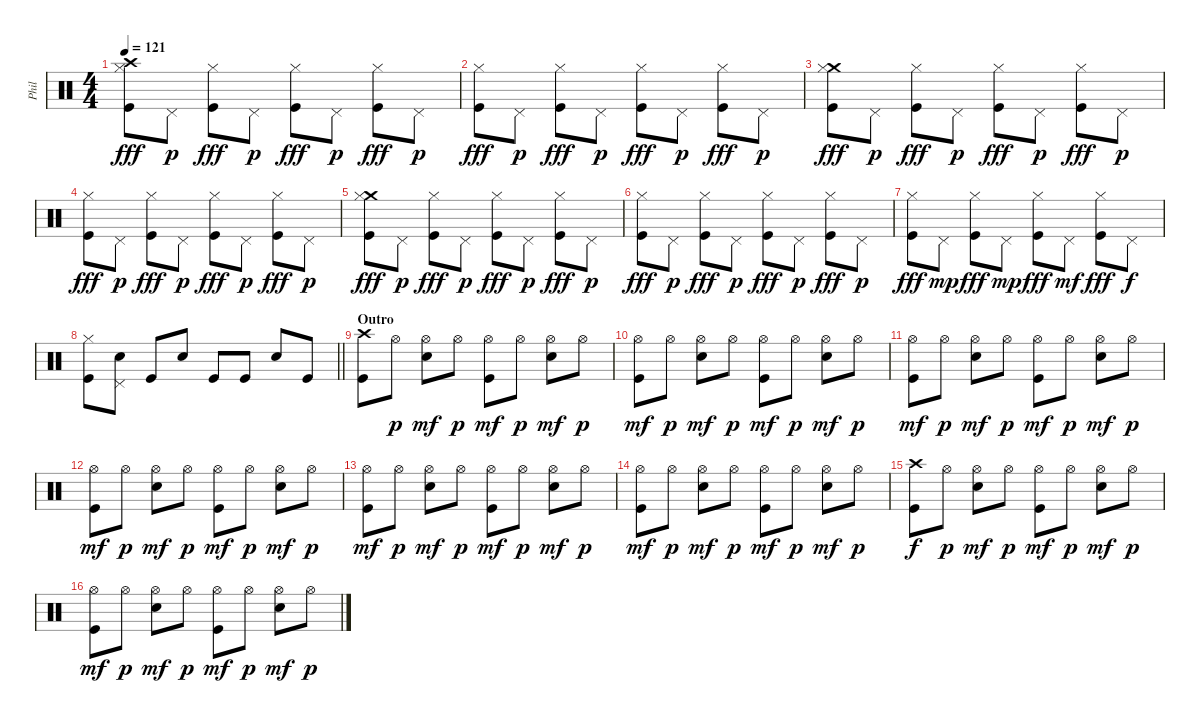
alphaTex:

\track ("Phil" "Phil") {instrument percussion}
\staff {score}
\articulation defaults
\ts (4 4)
\tempo 121
\clef neutral
\ks c
("Crash high (hit)" "Hi-Hat (closed)" "Kick (hit)").8{dy fff} "Pedal Hi-Hat (hit)".8{dy p} ("Hi-Hat (closed)" "Kick (hit)").8{dy fff} "Pedal Hi-Hat (hit)".8{dy p} ("Hi-Hat (closed)" "Kick (hit)").8{dy fff} "Pedal Hi-Hat (hit)".8{dy p} ("Hi-Hat (closed)" "Kick (hit)").8{dy fff} "Pedal Hi-Hat (hit)".8{dy p} |
("Hi-Hat (closed)" "Kick (hit)").8{dy fff} "Pedal Hi-Hat (hit)".8{dy p} ("Hi-Hat (closed)" "Kick (hit)").8{dy fff} "Pedal Hi-Hat (hit)".8{dy p} ("Hi-Hat (closed)" "Kick (hit)").8{dy fff} "Pedal Hi-Hat (hit)".8{dy p} ("Hi-Hat (closed)" "Kick (hit)").8{dy fff} "Pedal Hi-Hat (hit)".8{dy p} |
("Crash medium (hit)" "Hi-Hat (closed)" "Kick (hit)").8{dy fff} "Pedal Hi-Hat (hit)".8{dy p} ("Hi-Hat (closed)" "Kick (hit)").8{dy fff} "Pedal Hi-Hat (hit)".8{dy p} ("Hi-Hat (closed)" "Kick (hit)").8{dy fff} "Pedal Hi-Hat (hit)".8{dy p} ("Hi-Hat (closed)" "Kick (hit)").8{dy fff} "Pedal Hi-Hat (hit)".8{dy p} |
("Hi-Hat (closed)" "Kick (hit)").8{dy fff} "Pedal Hi-Hat (hit)".8{dy p} ("Hi-Hat (closed)" "Kick (hit)").8{dy fff} "Pedal Hi-Hat (hit)".8{dy p} ("Hi-Hat (closed)" "Kick (hit)").8{dy fff} "Pedal Hi-Hat (hit)".8{dy p} ("Hi-Hat (closed)" "Kick (hit)").8{dy fff} "Pedal Hi-Hat (hit)".8{dy p} |
("Crash medium (hit)" "Hi-Hat (closed)" "Kick (hit)").8{dy fff} "Pedal Hi-Hat (hit)".8{dy p} ("Hi-Hat (closed)" "Kick (hit)").8{dy fff} "Pedal Hi-Hat (hit)".8{dy p} ("Hi-Hat (closed)" "Kick (hit)").8{dy fff} "Pedal Hi-Hat (hit)".8{dy p} ("Hi-Hat (closed)" "Kick (hit)").8{dy fff} "Pedal Hi-Hat (hit)".8{dy p} |
("Hi-Hat (closed)" "Kick (hit)").8{dy fff} "Pedal Hi-Hat (hit)".8{dy p} ("Hi-Hat (closed)" "Kick (hit)").8{dy fff} "Pedal Hi-Hat (hit)".8{dy p} ("Hi-Hat (closed)" "Kick (hit)").8{dy fff} "Pedal Hi-Hat (hit)".8{dy p} ("Hi-Hat (closed)" "Kick (hit)").8{dy fff} "Pedal Hi-Hat (hit)".8{dy p} |
("Hi-Hat (closed)" "Kick (hit)").8{dy fff} "Pedal Hi-Hat (hit)".8{dy mp} ("Hi-Hat (closed)" "Kick (hit)").8{dy fff} "Pedal Hi-Hat (hit)".8{dy mp} ("Hi-Hat (closed)" "Kick (hit)").8{dy fff} "Pedal Hi-Hat (hit)".8{dy mf} ("Hi-Hat (closed)" "Kick (hit)").8{dy fff} "Pedal Hi-Hat (hit)".8{dy f} |
\barLineRight lightlight
("Hi-Hat (closed)" "Kick (hit)").8 ("Pedal Hi-Hat (hit)" "Snare (hit) 2").8 "Kick (hit)".8 "Snare (hit) 2".8 "Kick (hit)".8 "Kick (hit)".8 "Snare (hit) 2".8 "Kick (hit)".8 |
\section ("" "Outro")
("Crash high (hit)" "Kick (hit)").8 "Hi-Hat (open)".8{dy p} ("Hi-Hat (open)" "Snare (hit) 2").8{dy mf} "Hi-Hat (open)".8{dy p} ("Hi-Hat (open)" "Kick (hit)").8{dy mf} "Hi-Hat (open)".8{dy p} ("Hi-Hat (open)" "Snare (hit) 2").8{dy mf} "Hi-Hat (open)".8{dy p} |
("Hi-Hat (open)" "Kick (hit)").8{dy mf} "Hi-Hat (open)".8{dy p} ("Hi-Hat (open)" "Snare (hit) 2").8{dy mf} "Hi-Hat (open)".8{dy p} ("Hi-Hat (open)" "Kick (hit)").8{dy mf} "Hi-Hat (open)".8{dy p} ("Hi-Hat (open)" "Snare (hit) 2").8{dy mf} "Hi-Hat (open)".8{dy p} |
("Hi-Hat (open)" "Kick (hit)").8{dy mf} "Hi-Hat (open)".8{dy p} ("Hi-Hat (open)" "Snare (hit) 2").8{dy mf} "Hi-Hat (open)".8{dy p} ("Hi-Hat (open)" "Kick (hit)").8{dy mf} "Hi-Hat (open)".8{dy p} ("Hi-Hat (open)" "Snare (hit) 2").8{dy mf} "Hi-Hat (open)".8{dy p} |
("Hi-Hat (open)" "Kick (hit)").8{dy mf} "Hi-Hat (open)".8{dy p} ("Hi-Hat (open)" "Snare (hit) 2").8{dy mf} "Hi-Hat (open)".8{dy p} ("Hi-Hat (open)" "Kick (hit)").8{dy mf} "Hi-Hat (open)".8{dy p} ("Hi-Hat (open)" "Snare (hit) 2").8{dy mf} "Hi-Hat (open)".8{dy p} |
("Hi-Hat (open)" "Kick (hit)").8{dy mf} "Hi-Hat (open)".8{dy p} ("Hi-Hat (open)" "Snare (hit) 2").8{dy mf} "Hi-Hat (open)".8{dy p} ("Hi-Hat (open)" "Kick (hit)").8{dy mf} "Hi-Hat (open)".8{dy p} ("Hi-Hat (open)" "Snare (hit) 2").8{dy mf} "Hi-Hat (open)".8{dy p} |
("Hi-Hat (open)" "Kick (hit)").8{dy mf} "Hi-Hat (open)".8{dy p} ("Hi-Hat (open)" "Snare (hit) 2").8{dy mf} "Hi-Hat (open)".8{dy p} ("Hi-Hat (open)" "Kick (hit)").8{dy mf} "Hi-Hat (open)".8{dy p} ("Hi-Hat (open)" "Snare (hit) 2").8{dy mf} "Hi-Hat (open)".8{dy p} |
("Crash high (hit)" "Kick (hit)").8{dy f} "Hi-Hat (open)".8{dy p} ("Hi-Hat (open)" "Snare (hit) 2").8{dy mf} "Hi-Hat (open)".8{dy p} ("Hi-Hat (open)" "Kick (hit)").8{dy mf} "Hi-Hat (open)".8{dy p} ("Hi-Hat (open)" "Snare (hit) 2").8{dy mf} "Hi-Hat (open)".8{dy p} |
("Hi-Hat (open)" "Kick (hit)").8{dy mf} "Hi-Hat (open)".8{dy p} ("Hi-Hat (open)" "Snare (hit) 2").8{dy mf} "Hi-Hat (open)".8{dy p} ("Hi-Hat (open)" "Kick (hit)").8{dy mf} "Hi-Hat (open)".8{dy p} ("Hi-Hat (open)" "Snare (hit) 2").8{dy mf} "Hi-Hat (open)".8{dy p}
